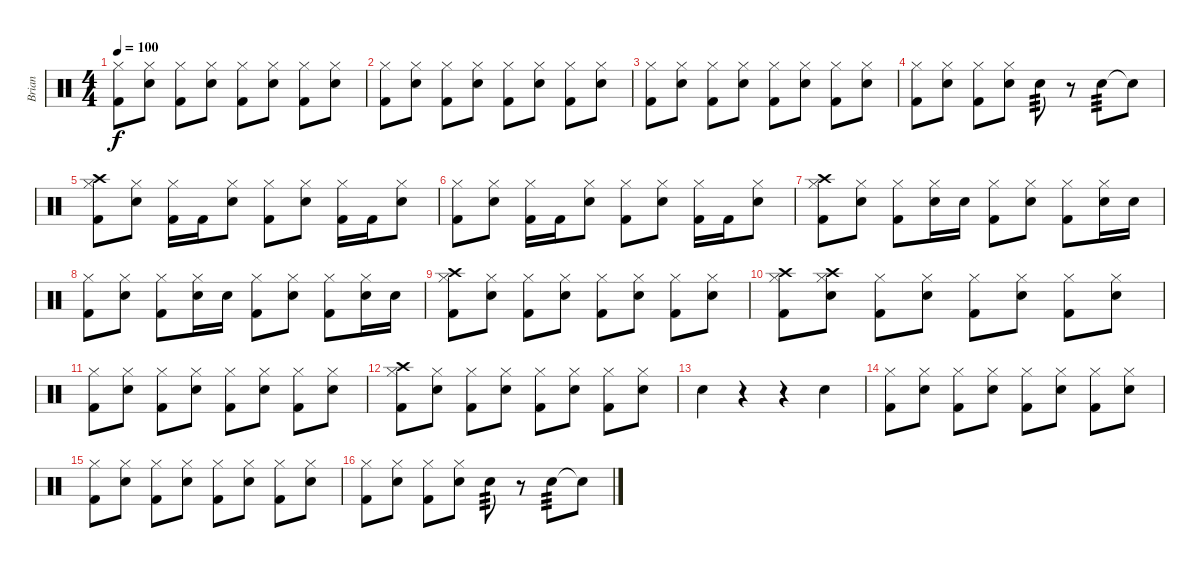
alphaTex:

\track ("Brian" "Brian") {instrument percussion}
\staff {score}
\articulation defaults
\ts (4 4)
\tempo 100
\clef neutral
\ks c
("Hi-Hat (closed)" "Kick (hit) 2").8{dy f} ("Hi-Hat (closed)" "Electric Snare (hit)").8 ("Hi-Hat (closed)" "Kick (hit) 2").8 ("Hi-Hat (closed)" "Electric Snare (hit)").8 ("Hi-Hat (closed)" "Kick (hit) 2").8 ("Hi-Hat (closed)" "Electric Snare (hit)").8 ("Hi-Hat (closed)" "Kick (hit) 2").8 ("Hi-Hat (closed)" "Electric Snare (hit)").8 |
("Hi-Hat (closed)" "Kick (hit) 2").8 ("Hi-Hat (closed)" "Electric Snare (hit)").8 ("Hi-Hat (closed)" "Kick (hit) 2").8 ("Hi-Hat (closed)" "Electric Snare (hit)").8 ("Hi-Hat (closed)" "Kick (hit) 2").8 ("Hi-Hat (closed)" "Electric Snare (hit)").8 ("Hi-Hat (closed)" "Kick (hit) 2").8 ("Hi-Hat (closed)" "Electric Snare (hit)").8 |
("Hi-Hat (closed)" "Kick (hit) 2").8 ("Hi-Hat (closed)" "Electric Snare (hit)").8 ("Hi-Hat (closed)" "Kick (hit) 2").8 ("Hi-Hat (closed)" "Electric Snare (hit)").8 ("Hi-Hat (closed)" "Kick (hit) 2").8 ("Hi-Hat (closed)" "Electric Snare (hit)").8 ("Hi-Hat (closed)" "Kick (hit) 2").8 ("Hi-Hat (closed)" "Electric Snare (hit)").8 |
("Hi-Hat (closed)" "Kick (hit) 2").8 ("Hi-Hat (closed)" "Electric Snare (hit)").8 ("Hi-Hat (closed)" "Kick (hit) 2").8 ("Hi-Hat (closed)" "Electric Snare (hit)").8 "Electric Snare (hit)".8{tp 3} r.8 "Electric Snare (hit)".8{tp 3} "Snare (hit)"{t}.8 |
("Crash high (hit)" "Hi-Hat (closed)" "Kick (hit) 2").8 ("Hi-Hat (closed)" "Electric Snare (hit)").8 ("Hi-Hat (closed)" "Kick (hit) 2").16 "Kick (hit) 2".16 ("Hi-Hat (closed)" "Electric Snare (hit)").8 ("Hi-Hat (closed)" "Kick (hit) 2").8 ("Hi-Hat (closed)" "Electric Snare (hit)").8 ("Hi-Hat (closed)" "Kick (hit) 2").16 "Kick (hit) 2".16 ("Hi-Hat (closed)" "Electric Snare (hit)").8 |
("Hi-Hat (closed)" "Kick (hit) 2").8 ("Hi-Hat (closed)" "Electric Snare (hit)").8 ("Hi-Hat (closed)" "Kick (hit) 2").16 "Kick (hit) 2".16 ("Hi-Hat (closed)" "Electric Snare (hit)").8 ("Hi-Hat (closed)" "Kick (hit) 2").8 ("Hi-Hat (closed)" "Electric Snare (hit)").8 ("Hi-Hat (closed)" "Kick (hit) 2").16 "Kick (hit) 2".16 ("Hi-Hat (closed)" "Electric Snare (hit)").8 |
("Crash high (hit)" "Hi-Hat (closed)" "Kick (hit) 2").8 ("Hi-Hat (closed)" "Electric Snare (hit)").8 ("Hi-Hat (closed)" "Kick (hit) 2").8 ("Hi-Hat (closed)" "Electric Snare (hit)").16 "Electric Snare (hit)".16 ("Hi-Hat (closed)" "Kick (hit) 2").8 ("Hi-Hat (closed)" "Electric Snare (hit)").8 ("Hi-Hat (closed)" "Kick (hit) 2").8 ("Hi-Hat (closed)" "Electric Snare (hit)").16 "Electric Snare (hit)".16 |
("Hi-Hat (closed)" "Kick (hit) 2").8 ("Hi-Hat (closed)" "Electric Snare (hit)").8 ("Hi-Hat (closed)" "Kick (hit) 2").8 ("Hi-Hat (closed)" "Electric Snare (hit)").16 "Electric Snare (hit)".16 ("Hi-Hat (closed)" "Kick (hit) 2").8 ("Hi-Hat (closed)" "Electric Snare (hit)").8 ("Hi-Hat (closed)" "Kick (hit) 2").8 ("Hi-Hat (closed)" "Electric Snare (hit)").16 "Electric Snare (hit)".16 |
("Crash high (hit)" "Hi-Hat (closed)" "Kick (hit) 2").8 ("Hi-Hat (closed)" "Electric Snare (hit)").8 ("Hi-Hat (closed)" "Kick (hit) 2").8 ("Hi-Hat (closed)" "Electric Snare (hit)").8 ("Hi-Hat (closed)" "Kick (hit) 2").8 ("Hi-Hat (closed)" "Electric Snare (hit)").8 ("Hi-Hat (closed)" "Kick (hit) 2").8 ("Hi-Hat (closed)" "Electric Snare (hit)").8 |
("Crash high (hit)" "Hi-Hat (closed)" "Kick (hit) 2").8 ("Crash high (hit)" "Hi-Hat (closed)" "Electric Snare (hit)").8 ("Hi-Hat (closed)" "Kick (hit) 2").8 ("Hi-Hat (closed)" "Electric Snare (hit)").8 ("Hi-Hat (closed)" "Kick (hit) 2").8 ("Hi-Hat (closed)" "Electric Snare (hit)").8 ("Hi-Hat (closed)" "Kick (hit) 2").8 ("Hi-Hat (closed)" "Electric Snare (hit)").8 |
("Hi-Hat (closed)" "Kick (hit) 2").8 ("Hi-Hat (closed)" "Electric Snare (hit)").8 ("Hi-Hat (closed)" "Kick (hit) 2").8 ("Hi-Hat (closed)" "Electric Snare (hit)").8 ("Hi-Hat (closed)" "Kick (hit) 2").8 ("Hi-Hat (closed)" "Electric Snare (hit)").8 ("Hi-Hat (closed)" "Kick (hit) 2").8 ("Hi-Hat (closed)" "Electric Snare (hit)").8 |
("Crash high (hit)" "Hi-Hat (closed)" "Kick (hit) 2").8 ("Hi-Hat (closed)" "Electric Snare (hit)").8 ("Hi-Hat (closed)" "Kick (hit) 2").8 ("Hi-Hat (closed)" "Electric Snare (hit)").8 ("Hi-Hat (closed)" "Kick (hit) 2").8 ("Hi-Hat (closed)" "Electric Snare (hit)").8 ("Hi-Hat (closed)" "Kick (hit) 2").8 ("Hi-Hat (closed)" "Electric Snare (hit)").8 |
"Electric Snare (hit)".4 r.4 r.4 "Electric Snare (hit)".4 |
("Hi-Hat (closed)" "Kick (hit) 2").8 ("Hi-Hat (closed)" "Electric Snare (hit)").8 ("Hi-Hat (closed)" "Kick (hit) 2").8 ("Hi-Hat (closed)" "Electric Snare (hit)").8 ("Hi-Hat (closed)" "Kick (hit) 2").8 ("Hi-Hat (closed)" "Electric Snare (hit)").8 ("Hi-Hat (closed)" "Kick (hit) 2").8 ("Hi-Hat (closed)" "Electric Snare (hit)").8 |
("Hi-Hat (closed)" "Kick (hit) 2").8 ("Hi-Hat (closed)" "Electric Snare (hit)").8 ("Hi-Hat (closed)" "Kick (hit) 2").8 ("Hi-Hat (closed)" "Electric Snare (hit)").8 ("Hi-Hat (closed)" "Kick (hit) 2").8 ("Hi-Hat (closed)" "Electric Snare (hit)").8 ("Hi-Hat (closed)" "Kick (hit) 2").8 ("Hi-Hat (closed)" "Electric Snare (hit)").8 |
("Hi-Hat (closed)" "Kick (hit) 2").8 ("Hi-Hat (closed)" "Electric Snare (hit)").8 ("Hi-Hat (closed)" "Kick (hit) 2").8 ("Hi-Hat (closed)" "Electric Snare (hit)").8 "Electric Snare (hit)".8{tp 3} r.8 "Electric Snare (hit)".8{tp 3} "Snare (hit)"{t}.8
